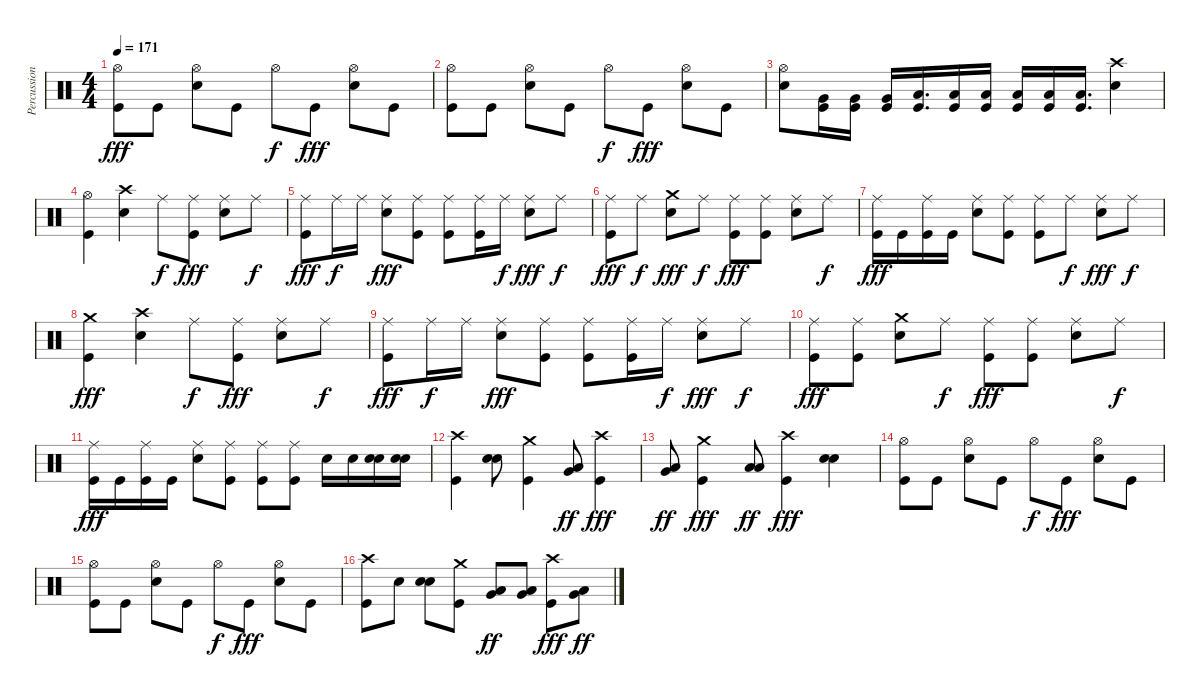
\track ("Percussion" "Percussion") {instrument percussion}
\staff {score}
\articulation defaults
\ts (4 4)
\tempo 171
\clef neutral
\ks c
("Hi-Hat (open)" "Kick (hit)").8{dy fff} "Kick (hit)".8 ("Hi-Hat (open)" "Snare (hit) 2").8 "Kick (hit)".8 "Hi-Hat (open)".8{dy f} "Kick (hit)".8{dy fff} ("Hi-Hat (open)" "Snare (hit) 2").8 "Kick (hit)".8 |
("Hi-Hat (open)" "Kick (hit)").8 "Kick (hit)".8 ("Hi-Hat (open)" "Snare (hit) 2").8 "Kick (hit)".8 "Hi-Hat (open)".8{dy f} "Kick (hit)".8{dy fff} ("Hi-Hat (open)" "Snare (hit) 2").8 "Kick (hit)".8 |
("Hi-Hat (open)" "Snare (hit) 2").8 ("Very Low Tom (hit)" "Kick (hit)").16 ("Very Low Tom (hit)" "Kick (hit)").16 ("Very Low Tom (hit)" "Kick (hit)").16 ("Low Floor Tom (hit)" "Kick (hit)").16{d} ("Low Floor Tom (hit)" "Kick (hit)").16 ("Low Floor Tom (hit)" "Kick (hit)").16 ("Low Floor Tom (hit)" "Kick (hit)").16 ("Low Floor Tom (hit)" "Kick (hit)").16 ("Low Floor Tom (hit)" "Kick (hit)").16{d} ("Crash high (hit)" "Snare (hit) 2").4 |
("Hi-Hat (open)" "Kick (hit)").4 ("Crash high (hit)" "Snare (hit) 2").4 "Ride (middle)".8{dy f} ("Ride (middle)" "Kick (hit)").8{dy fff} ("Ride (middle)" "Snare (hit) 2").8 "Ride (middle)".8{dy f} |
("Ride (middle)" "Kick (hit)").8{dy fff} "Ride (middle)".16{dy f} "Ride (middle)".16 ("Ride (middle)" "Snare (hit) 2").8{dy fff} ("Ride (middle)" "Kick (hit)").8 ("Ride (middle)" "Kick (hit)").8 ("Ride (middle)" "Kick (hit)").16 "Ride (middle)".16{dy f} ("Ride (middle)" "Snare (hit) 2").8{dy fff} "Ride (middle)".8{dy f} |
("Ride (middle)" "Kick (hit)").8{dy fff} "Ride (middle)".8{dy f} ("Crash medium (hit)" "Snare (hit) 2").8{dy fff} "Ride (middle)".8{dy f} ("Ride (middle)" "Kick (hit)").8{dy fff} ("Ride (middle)" "Kick (hit)").8 ("Ride (middle)" "Snare (hit) 2").8 "Ride (middle)".8{dy f} |
("Ride (middle)" "Kick (hit)").16{dy fff} "Kick (hit)".16 ("Ride (middle)" "Kick (hit)").16 "Kick (hit)".16 ("Ride (middle)" "Snare (hit) 2").8 ("Ride (middle)" "Kick (hit)").8 ("Ride (middle)" "Kick (hit)").8 "Ride (middle)".8{dy f} ("Ride (middle)" "Snare (hit) 2").8{dy fff} "Ride (middle)".8{dy f} |
("Crash medium (hit)" "Kick (hit)").4{dy fff} ("Crash high (hit)" "Snare (hit) 2").4 "Ride (middle)".8{dy f} ("Ride (middle)" "Kick (hit)").8{dy fff} ("Ride (middle)" "Snare (hit) 2").8 "Ride (middle)".8{dy f} |
("Ride (middle)" "Kick (hit)").8{dy fff} "Ride (middle)".16{dy f} "Ride (middle)".16 ("Ride (middle)" "Snare (hit) 2").8{dy fff} ("Ride (middle)" "Kick (hit)").8 ("Ride (middle)" "Kick (hit)").8 ("Ride (middle)" "Kick (hit)").16 "Ride (middle)".16{dy f} ("Ride (middle)" "Snare (hit) 2").8{dy fff} "Ride (middle)".8{dy f} |
("Ride (middle)" "Kick (hit)").8{dy fff} ("Ride (middle)" "Kick (hit)").8 ("Crash medium (hit)" "Snare (hit) 2").8 "Ride (middle)".8{dy f} ("Ride (middle)" "Kick (hit)").8{dy fff} ("Ride (middle)" "Kick (hit)").8 ("Ride (middle)" "Snare (hit) 2").8 "Ride (middle)".8{dy f} |
("Ride (middle)" "Kick (hit)").16{dy fff} "Kick (hit)".16 ("Ride (middle)" "Kick (hit)").16 "Kick (hit)".16 ("Ride (middle)" "Snare (hit) 2").8 ("Ride (middle)" "Kick (hit)").8 ("Ride (middle)" "Kick (hit)").8 ("Ride (middle)" "Kick (hit)").8 "Snare (hit) 2".16 "Snare (hit) 2".16 ("Electric Snare (hit)" "Snare (hit) 2").16 ("Electric Snare (hit)" "Snare (hit) 2").16 |
("Crash high (hit)" "Kick (hit)").4 ("Electric Snare (hit)" "Snare (hit) 2").8 ("Crash medium (hit)" "Kick (hit)").4 ("Very Low Tom (hit)" "Low Tom (hit)").8{dy ff} ("Crash high (hit)" "Kick (hit)").4{dy fff} |
("Low Floor Tom (hit)" "Very Low Tom (hit)").8{dy ff} ("Crash medium (hit)" "Kick (hit)").4{dy fff} ("Low Floor Tom (hit)" "Low Floor Tom (hit)").8{dy ff} ("Crash high (hit)" "Kick (hit)").4{dy fff} ("Electric Snare (hit)" "Snare (hit) 2").4 |
("Hi-Hat (open)" "Kick (hit)").8 "Kick (hit)".8 ("Hi-Hat (open)" "Snare (hit) 2").8 "Kick (hit)".8 "Hi-Hat (open)".8{dy f} "Kick (hit)".8{dy fff} ("Hi-Hat (open)" "Snare (hit) 2").8 "Kick (hit)".8 |
("Hi-Hat (open)" "Kick (hit)").8 "Kick (hit)".8 ("Hi-Hat (open)" "Snare (hit) 2").8 "Kick (hit)".8 "Hi-Hat (open)".8{dy f} "Kick (hit)".8{dy fff} ("Hi-Hat (open)" "Snare (hit) 2").8 "Kick (hit)".8 |
("Crash high (hit)" "Kick (hit)").8 "Snare (hit) 2".8 ("Electric Snare (hit)" "Snare (hit) 2").8 ("Crash medium (hit)" "Kick (hit)").8 ("Very Low Tom (hit)" "Low Tom (hit)").8{dy ff} ("Very Low Tom (hit)" "Low Tom (hit)").8 ("Crash high (hit)" "Kick (hit)").8{dy fff} ("Low Floor Tom (hit)" "Very Low Tom (hit)").8{dy ff}
